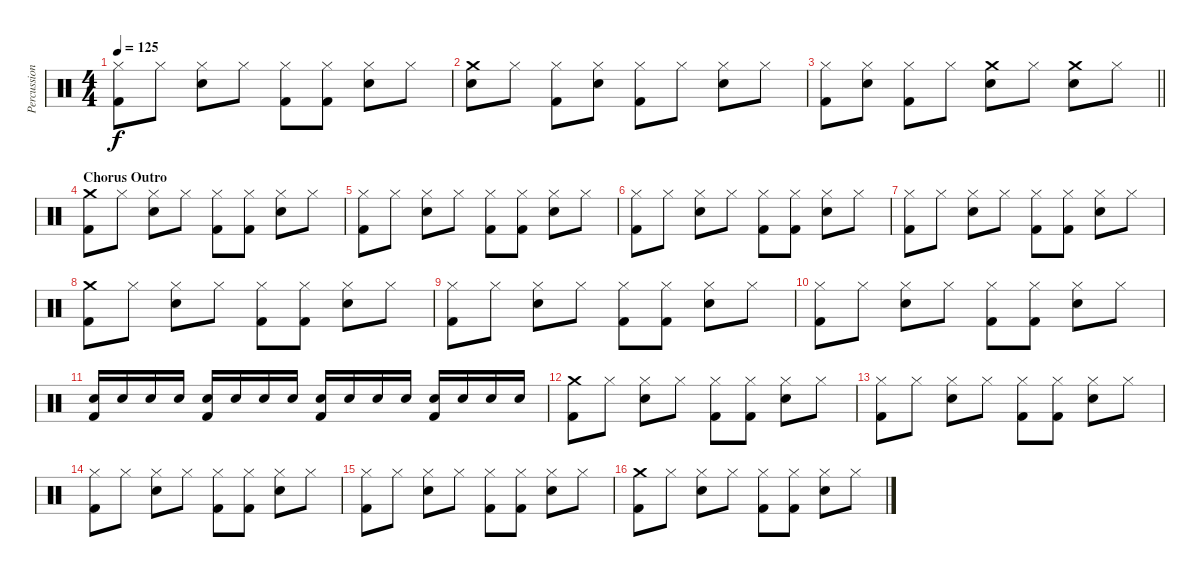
\track ("Percussion" "Percussion") {instrument percussion}
\staff {score}
\articulation defaults
\ts (4 4)
\tempo 125
\clef neutral
\ks c
("Hi-Hat (closed)" "Kick (hit) 2").8{dy f} "Hi-Hat (closed)".8 ("Hi-Hat (closed)" "Snare (hit) 2").8 "Hi-Hat (closed)".8 ("Hi-Hat (closed)" "Kick (hit) 2").8 ("Hi-Hat (closed)" "Kick (hit) 2").8 ("Hi-Hat (closed)" "Snare (hit) 2").8 "Hi-Hat (closed)".8 |
("Crash medium (hit)" "Snare (hit) 2").8 "Hi-Hat (closed)".8 ("Hi-Hat (closed)" "Kick (hit) 2").8 ("Hi-Hat (closed)" "Snare (hit) 2").8 ("Hi-Hat (closed)" "Kick (hit) 2").8 "Hi-Hat (closed)".8 ("Hi-Hat (closed)" "Snare (hit) 2").8 "Hi-Hat (closed)".8 |
\barLineRight lightlight
("Hi-Hat (closed)" "Kick (hit) 2").8 ("Hi-Hat (closed)" "Snare (hit) 2").8 ("Hi-Hat (closed)" "Kick (hit) 2").8 "Hi-Hat (closed)".8 ("Crash medium (hit)" "Snare (hit) 2").8 "Hi-Hat (closed)".8 ("Crash medium (hit)" "Snare (hit) 2").8 "Hi-Hat (closed)".8 |
\section ("" "Chorus Outro")
("Crash medium (hit)" "Kick (hit) 2").8 "Hi-Hat (closed)".8 ("Hi-Hat (closed)" "Snare (hit) 2").8 "Hi-Hat (closed)".8 ("Hi-Hat (closed)" "Kick (hit) 2").8 ("Hi-Hat (closed)" "Kick (hit) 2").8 ("Hi-Hat (closed)" "Snare (hit) 2").8 "Hi-Hat (closed)".8 |
("Hi-Hat (closed)" "Kick (hit) 2").8 "Hi-Hat (closed)".8 ("Hi-Hat (closed)" "Snare (hit) 2").8 "Hi-Hat (closed)".8 ("Hi-Hat (closed)" "Kick (hit) 2").8 ("Hi-Hat (closed)" "Kick (hit) 2").8 ("Hi-Hat (closed)" "Snare (hit) 2").8 "Hi-Hat (closed)".8 |
("Hi-Hat (closed)" "Kick (hit) 2").8 "Hi-Hat (closed)".8 ("Hi-Hat (closed)" "Snare (hit) 2").8 "Hi-Hat (closed)".8 ("Hi-Hat (closed)" "Kick (hit) 2").8 ("Hi-Hat (closed)" "Kick (hit) 2").8 ("Hi-Hat (closed)" "Snare (hit) 2").8 "Hi-Hat (closed)".8 |
("Hi-Hat (closed)" "Kick (hit) 2").8 "Hi-Hat (closed)".8 ("Hi-Hat (closed)" "Snare (hit) 2").8 "Hi-Hat (closed)".8 ("Hi-Hat (closed)" "Kick (hit) 2").8 ("Hi-Hat (closed)" "Kick (hit) 2").8 ("Hi-Hat (closed)" "Snare (hit) 2").8 "Hi-Hat (closed)".8 |
("Crash medium (hit)" "Kick (hit) 2").8 "Hi-Hat (closed)".8 ("Hi-Hat (closed)" "Snare (hit) 2").8 "Hi-Hat (closed)".8 ("Hi-Hat (closed)" "Kick (hit) 2").8 ("Hi-Hat (closed)" "Kick (hit) 2").8 ("Hi-Hat (closed)" "Snare (hit) 2").8 "Hi-Hat (closed)".8 |
("Hi-Hat (closed)" "Kick (hit) 2").8 "Hi-Hat (closed)".8 ("Hi-Hat (closed)" "Snare (hit) 2").8 "Hi-Hat (closed)".8 ("Hi-Hat (closed)" "Kick (hit) 2").8 ("Hi-Hat (closed)" "Kick (hit) 2").8 ("Hi-Hat (closed)" "Snare (hit) 2").8 "Hi-Hat (closed)".8 |
("Hi-Hat (closed)" "Kick (hit) 2").8 "Hi-Hat (closed)".8 ("Hi-Hat (closed)" "Snare (hit) 2").8 "Hi-Hat (closed)".8 ("Hi-Hat (closed)" "Kick (hit) 2").8 ("Hi-Hat (closed)" "Kick (hit) 2").8 ("Hi-Hat (closed)" "Snare (hit) 2").8 "Hi-Hat (closed)".8 |
("Snare (hit) 2" "Kick (hit) 2").16 "Snare (hit) 2".16 "Snare (hit) 2".16 "Snare (hit) 2".16 ("Snare (hit) 2" "Kick (hit) 2").16 "Snare (hit) 2".16 "Snare (hit) 2".16 "Snare (hit) 2".16 ("Snare (hit) 2" "Kick (hit) 2").16 "Snare (hit) 2".16 "Snare (hit) 2".16 "Snare (hit) 2".16 ("Snare (hit) 2" "Kick (hit) 2").16 "Snare (hit) 2".16 "Snare (hit) 2".16 "Snare (hit) 2".16 |
("Crash medium (hit)" "Kick (hit) 2").8 "Hi-Hat (closed)".8 ("Hi-Hat (closed)" "Snare (hit) 2").8 "Hi-Hat (closed)".8 ("Hi-Hat (closed)" "Kick (hit) 2").8 ("Hi-Hat (closed)" "Kick (hit) 2").8 ("Hi-Hat (closed)" "Snare (hit) 2").8 "Hi-Hat (closed)".8 |
("Hi-Hat (closed)" "Kick (hit) 2").8 "Hi-Hat (closed)".8 ("Hi-Hat (closed)" "Snare (hit) 2").8 "Hi-Hat (closed)".8 ("Hi-Hat (closed)" "Kick (hit) 2").8 ("Hi-Hat (closed)" "Kick (hit) 2").8 ("Hi-Hat (closed)" "Snare (hit) 2").8 "Hi-Hat (closed)".8 |
("Hi-Hat (closed)" "Kick (hit) 2").8 "Hi-Hat (closed)".8 ("Hi-Hat (closed)" "Snare (hit) 2").8 "Hi-Hat (closed)".8 ("Hi-Hat (closed)" "Kick (hit) 2").8 ("Hi-Hat (closed)" "Kick (hit) 2").8 ("Hi-Hat (closed)" "Snare (hit) 2").8 "Hi-Hat (closed)".8 |
("Hi-Hat (closed)" "Kick (hit) 2").8 "Hi-Hat (closed)".8 ("Hi-Hat (closed)" "Snare (hit) 2").8 "Hi-Hat (closed)".8 ("Hi-Hat (closed)" "Kick (hit) 2").8 ("Hi-Hat (closed)" "Kick (hit) 2").8 ("Hi-Hat (closed)" "Snare (hit) 2").8 "Hi-Hat (closed)".8 |
("Crash medium (hit)" "Kick (hit) 2").8 "Hi-Hat (closed)".8 ("Hi-Hat (closed)" "Snare (hit) 2").8 "Hi-Hat (closed)".8 ("Hi-Hat (closed)" "Kick (hit) 2").8 ("Hi-Hat (closed)" "Kick (hit) 2").8 ("Hi-Hat (closed)" "Snare (hit) 2").8 "Hi-Hat (closed)".8
